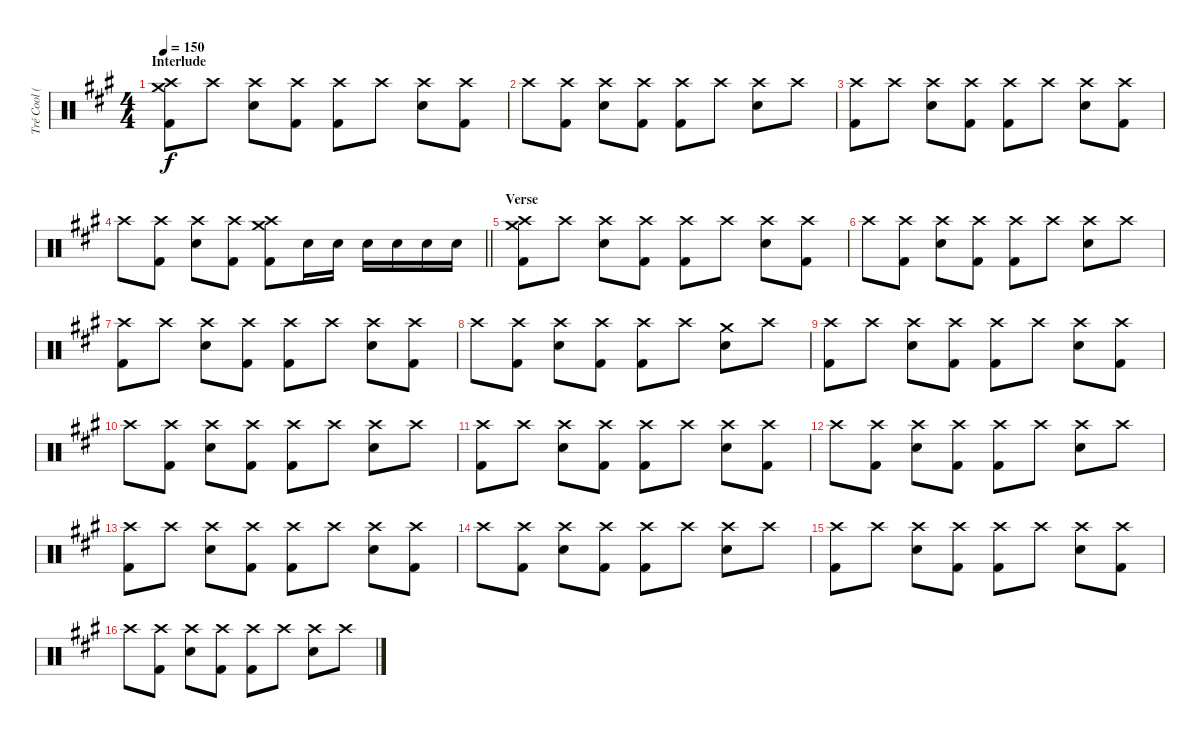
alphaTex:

\track ("Tré Cool (Drums)" "Tré Cool (") {instrument percussion}
\staff {score}
\articulation defaults
\ts (4 4)
\section ("" "Interlude")
\tempo 150
\clef neutral
\ks a
("Crash high (hit)" "Crash medium (hit)" "Kick (hit) 2").8{dy f} "Crash high (hit)".8 ("Crash high (hit)" "Snare (hit) 2").8 ("Crash high (hit)" "Kick (hit) 2").8 ("Crash high (hit)" "Kick (hit) 2").8 "Crash high (hit)".8 ("Crash high (hit)" "Snare (hit) 2").8 ("Crash high (hit)" "Kick (hit) 2").8 |
"Crash high (hit)".8 ("Crash high (hit)" "Kick (hit) 2").8 ("Crash high (hit)" "Snare (hit) 2").8 ("Crash high (hit)" "Kick (hit) 2").8 ("Crash high (hit)" "Kick (hit) 2").8 "Crash high (hit)".8 ("Crash high (hit)" "Snare (hit) 2").8 "Crash high (hit)".8 |
("Crash high (hit)" "Kick (hit) 2").8 "Crash high (hit)".8 ("Crash high (hit)" "Snare (hit) 2").8 ("Crash high (hit)" "Kick (hit) 2").8 ("Crash high (hit)" "Kick (hit) 2").8 "Crash high (hit)".8 ("Crash high (hit)" "Snare (hit) 2").8 ("Crash high (hit)" "Kick (hit) 2").8 |
\barLineRight lightlight "Crash high (hit)".8
("Crash high (hit)" "Kick (hit) 2").8 ("Crash high (hit)" "Snare (hit) 2").8 ("Crash high (hit)" "Kick (hit) 2").8 ("Crash high (hit)" "Crash medium (hit)" "Kick (hit) 2").8 "Snare (hit) 2".16 "Snare (hit) 2".16 "Snare (hit) 2".16 "Snare (hit) 2".16 "Snare (hit) 2".16 "Snare (hit) 2".16 |
\section ("" "Verse")
("Crash high (hit)" "Crash medium (hit)" "Kick (hit) 2").8 "Crash high (hit)".8 ("Crash high (hit)" "Snare (hit) 2").8 ("Crash high (hit)" "Kick (hit) 2").8 ("Crash high (hit)" "Kick (hit) 2").8 "Crash high (hit)".8 ("Crash high (hit)" "Snare (hit) 2").8 ("Crash high (hit)" "Kick (hit) 2").8 |
"Crash high (hit)".8 ("Crash high (hit)" "Kick (hit) 2").8 ("Crash high (hit)" "Snare (hit) 2").8 ("Crash high (hit)" "Kick (hit) 2").8 ("Crash high (hit)" "Kick (hit) 2").8 "Crash high (hit)".8 ("Crash high (hit)" "Snare (hit) 2").8 "Crash high (hit)".8 |
("Crash high (hit)" "Kick (hit) 2").8 "Crash high (hit)".8 ("Crash high (hit)" "Snare (hit) 2").8 ("Crash high (hit)" "Kick (hit) 2").8 ("Crash high (hit)" "Kick (hit) 2").8 "Crash high (hit)".8 ("Crash high (hit)" "Snare (hit) 2").8 ("Crash high (hit)" "Kick (hit) 2").8 |
"Crash high (hit)".8 ("Crash high (hit)" "Kick (hit) 2").8 ("Crash high (hit)" "Snare (hit) 2").8 ("Crash high (hit)" "Kick (hit) 2").8 ("Crash high (hit)" "Kick (hit) 2").8 "Crash high (hit)".8 ("Crash medium (hit)" "Snare (hit) 2").8 "Crash high (hit)".8 |
("Crash high (hit)" "Kick (hit) 2").8 "Crash high (hit)".8 ("Crash high (hit)" "Snare (hit) 2").8 ("Crash high (hit)" "Kick (hit) 2").8 ("Crash high (hit)" "Kick (hit) 2").8 "Crash high (hit)".8 ("Crash high (hit)" "Snare (hit) 2").8 ("Crash high (hit)" "Kick (hit) 2").8 |
"Crash high (hit)".8 ("Crash high (hit)" "Kick (hit) 2").8 ("Crash high (hit)" "Snare (hit) 2").8 ("Crash high (hit)" "Kick (hit) 2").8 ("Crash high (hit)" "Kick (hit) 2").8 "Crash high (hit)".8 ("Crash high (hit)" "Snare (hit) 2").8 "Crash high (hit)".8 |
("Crash high (hit)" "Kick (hit) 2").8 "Crash high (hit)".8 ("Crash high (hit)" "Snare (hit) 2").8 ("Crash high (hit)" "Kick (hit) 2").8 ("Crash high (hit)" "Kick (hit) 2").8 "Crash high (hit)".8 ("Crash high (hit)" "Snare (hit) 2").8 ("Crash high (hit)" "Kick (hit) 2").8 |
"Crash high (hit)".8 ("Crash high (hit)" "Kick (hit) 2").8 ("Crash high (hit)" "Snare (hit) 2").8 ("Crash high (hit)" "Kick (hit) 2").8 ("Crash high (hit)" "Kick (hit) 2").8 "Crash high (hit)".8 ("Crash high (hit)" "Snare (hit) 2").8 "Crash high (hit)".8 |
("Crash high (hit)" "Kick (hit) 2").8 "Crash high (hit)".8 ("Crash high (hit)" "Snare (hit) 2").8 ("Crash high (hit)" "Kick (hit) 2").8 ("Crash high (hit)" "Kick (hit) 2").8 "Crash high (hit)".8 ("Crash high (hit)" "Snare (hit) 2").8 ("Crash high (hit)" "Kick (hit) 2").8 |
"Crash high (hit)".8 ("Crash high (hit)" "Kick (hit) 2").8 ("Crash high (hit)" "Snare (hit) 2").8 ("Crash high (hit)" "Kick (hit) 2").8 ("Crash high (hit)" "Kick (hit) 2").8 "Crash high (hit)".8 ("Crash high (hit)" "Snare (hit) 2").8 "Crash high (hit)".8 |
("Crash high (hit)" "Kick (hit) 2").8 "Crash high (hit)".8 ("Crash high (hit)" "Snare (hit) 2").8 ("Crash high (hit)" "Kick (hit) 2").8 ("Crash high (hit)" "Kick (hit) 2").8 "Crash high (hit)".8 ("Crash high (hit)" "Snare (hit) 2").8 ("Crash high (hit)" "Kick (hit) 2").8 |
"Crash high (hit)".8 ("Crash high (hit)" "Kick (hit) 2").8 ("Crash high (hit)" "Snare (hit) 2").8 ("Crash high (hit)" "Kick (hit) 2").8 ("Crash high (hit)" "Kick (hit) 2").8 "Crash high (hit)".8 ("Crash high (hit)" "Snare (hit) 2").8 "Crash high (hit)".8
